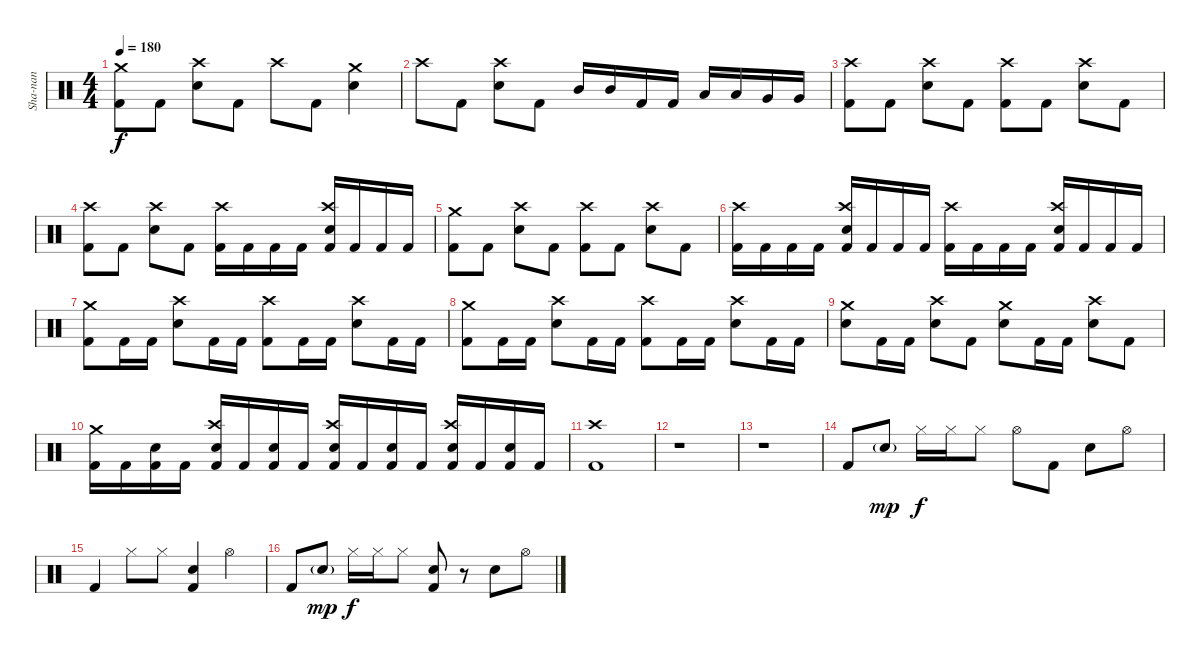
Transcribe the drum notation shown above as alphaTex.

\track ("Sha-nan" "Sha-nan") {instrument percussion}
\staff {score}
\articulation defaults
\ts (4 4)
\tempo 180
\clef neutral
\ks c
("Crash medium (hit)" "Kick (hit) 2").8{dy f} "Kick (hit) 2".8 ("Crash high (hit)" "Snare (hit) 2").8 "Kick (hit) 2".8 "Crash high (hit)".8 "Kick (hit) 2".8 ("Crash medium (hit)" "Snare (hit) 2").4 |
"Crash high (hit)".8 "Kick (hit) 2".8 ("Crash high (hit)" "Snare (hit) 2").8 "Kick (hit) 2".8 "Mid Tom (hit)".16 "Mid Tom (hit)".16 "Kick (hit) 2".16 "Kick (hit) 2".16 "Low Tom (hit)".16 "Low Tom (hit)".16 "Very Low Tom (hit)".16 "Very Low Tom (hit)".16 |
("Crash high (hit)" "Kick (hit) 2").8 "Kick (hit) 2".8 ("Crash high (hit)" "Snare (hit) 2").8 "Kick (hit) 2".8 ("Crash high (hit)" "Kick (hit) 2").8 "Kick (hit) 2".8 ("Crash high (hit)" "Snare (hit) 2").8 "Kick (hit) 2".8 |
("Crash high (hit)" "Kick (hit) 2").8 "Kick (hit) 2".8 ("Crash high (hit)" "Snare (hit) 2").8 "Kick (hit) 2".8 ("Crash high (hit)" "Kick (hit) 2").16 "Kick (hit) 2".16 "Kick (hit) 2".16 "Kick (hit) 2".16 ("Crash high (hit)" "Snare (hit) 2" "Kick (hit) 2").16 "Kick (hit) 2".16 "Kick (hit) 2".16 "Kick (hit) 2".16 |
("Crash medium (hit)" "Kick (hit) 2").8 "Kick (hit) 2".8 ("Crash high (hit)" "Snare (hit) 2").8 "Kick (hit) 2".8 ("Crash high (hit)" "Kick (hit) 2").8 "Kick (hit) 2".8 ("Crash high (hit)" "Snare (hit) 2").8 "Kick (hit) 2".8 |
("Crash high (hit)" "Kick (hit) 2").16 "Kick (hit) 2".16 "Kick (hit) 2".16 "Kick (hit) 2".16 ("Crash high (hit)" "Snare (hit) 2" "Kick (hit) 2").16 "Kick (hit) 2".16 "Kick (hit) 2".16 "Kick (hit) 2".16 ("Crash high (hit)" "Kick (hit) 2").16 "Kick (hit) 2".16 "Kick (hit) 2".16 "Kick (hit) 2".16 ("Crash high (hit)" "Snare (hit) 2" "Kick (hit) 2").16 "Kick (hit) 2".16 "Kick (hit) 2".16 "Kick (hit) 2".16 |
("Crash medium (hit)" "Kick (hit) 2").8 "Kick (hit) 2".16 "Kick (hit) 2".16 ("Crash high (hit)" "Snare (hit) 2").8 "Kick (hit) 2".16 "Kick (hit) 2".16 ("Crash high (hit)" "Kick (hit) 2").8 "Kick (hit) 2".16 "Kick (hit) 2".16 ("Crash high (hit)" "Snare (hit) 2").8 "Kick (hit) 2".16 "Kick (hit) 2".16 |
("Crash medium (hit)" "Kick (hit) 2").8 "Kick (hit) 2".16 "Kick (hit) 2".16 ("Crash high (hit)" "Snare (hit) 2").8 "Kick (hit) 2".16 "Kick (hit) 2".16 ("Crash high (hit)" "Kick (hit) 2").8 "Kick (hit) 2".16 "Kick (hit) 2".16 ("Crash high (hit)" "Snare (hit) 2").8 "Kick (hit) 2".16 "Kick (hit) 2".16 |
("Crash medium (hit)" "Snare (hit) 2").8 "Kick (hit) 2".16 "Kick (hit) 2".16 ("Crash high (hit)" "Snare (hit) 2").8 "Kick (hit) 2".8 ("Crash medium (hit)" "Snare (hit) 2").8 "Kick (hit) 2".16 "Kick (hit) 2".16 ("Crash high (hit)" "Snare (hit) 2").8 "Kick (hit) 2".8 |
("Crash medium (hit)" "Kick (hit) 2").16 "Kick (hit) 2".16 ("Snare (hit) 2" "Kick (hit) 2").16 "Kick (hit) 2".16 ("Crash high (hit)" "Snare (hit) 2" "Kick (hit) 2").16 "Kick (hit) 2".16 ("Snare (hit) 2" "Kick (hit) 2").16 "Kick (hit) 2".16 ("Crash high (hit)" "Snare (hit) 2" "Kick (hit) 2").16 "Kick (hit) 2".16 ("Snare (hit) 2" "Kick (hit) 2").16 "Kick (hit) 2".16 ("Crash high (hit)" "Snare (hit) 2" "Kick (hit) 2").16 "Kick (hit) 2".16 ("Snare (hit) 2" "Kick (hit) 2").16 "Kick (hit) 2".16 |
("Crash high (hit)" "Kick (hit) 2").1 |
r.1 |
r.1 |
"Kick (hit) 2".8 "Snare (hit) 2"{g}.8{dy mp} "Hi-Hat (closed)".16{dy f} "Hi-Hat (closed)".16 "Hi-Hat (closed)".8 "Hi-Hat (open)".8 "Kick (hit) 2".8 "Hand Clap (hit)".8 "Hi-Hat (open)".8 |
"Kick (hit) 2".4 "Hi-Hat (closed)".8 "Hi-Hat (closed)".8 ("Snare (hit) 2" "Kick (hit) 2").4 "Hi-Hat (open)".4 |
"Kick (hit) 2".8 "Snare (hit) 2"{g}.8{dy mp} "Hi-Hat (closed)".16{dy f} "Hi-Hat (closed)".16 "Hi-Hat (closed)".8 ("Snare (hit) 2" "Kick (hit) 2").8 r.8 "Hand Clap (hit)".8 "Hi-Hat (open)".8
